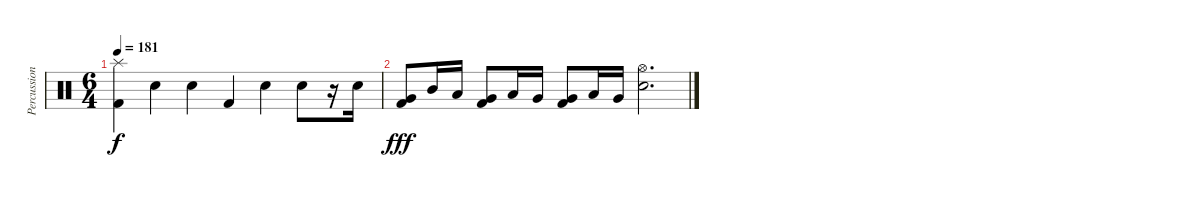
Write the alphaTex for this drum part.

\track ("Percussion" "Percussion") {instrument percussion}
\staff {score}
\articulation defaults
\ts (6 4)
\tempo 181
\clef neutral
\ks c
("Splash (hit)" "Kick (hit) 2").4{dy f} "Electric Snare (hit)".4 "Electric Snare (hit)".4 "Kick (hit) 2".4 "Electric Snare (hit)".4 "Electric Snare (hit)".8 r.16 "Electric Snare (hit)".16 |
("Kick (hit) 2" "Very Low Tom (hit)").8{dy fff} "Mid Tom (hit)".16 "Low Tom (hit)".16 ("Kick (hit) 2" "Very Low Tom (hit)").8 "Low Tom (hit)".16 "Very Low Tom (hit)".16 ("Kick (hit) 2" "Very Low Tom (hit)").8 "Low Tom (hit)".16 "Very Low Tom (hit)".16 ("Electric Snare (hit)" "Hi-Hat (open)").2{d}
